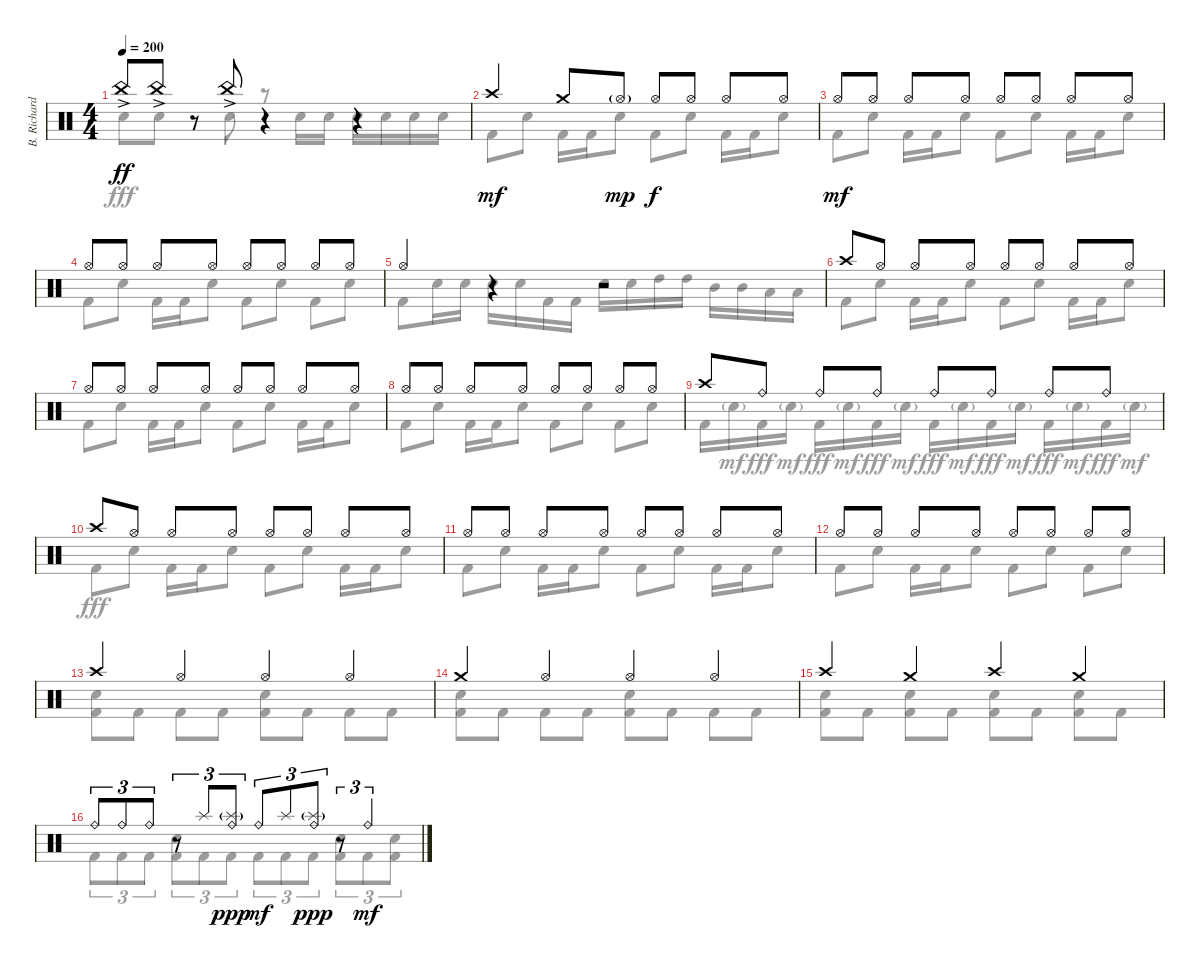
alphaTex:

\track ("B. Richardson Drums" "B. Richard") {instrument percussion}
\staff {score}
\articulation defaults
\voice
\ts (4 4)
\tempo 200
\clef neutral
\ks c "China (hit)"{ac}.8{dy ff} "China (hit)"{ac}.8
r.8 "China (hit)"{ac}.8 r.4 r.4 |
"Crash high (hit)".4{dy mf} "Crash medium (hit)".8 "Hi-Hat (open)"{g}.8{dy mp} "Hi-Hat (open)".8{dy f} "Hi-Hat (open)".8 "Hi-Hat (open)".8 "Hi-Hat (open)".8 |
"Hi-Hat (open)".8{dy mf} "Hi-Hat (open)".8 "Hi-Hat (open)".8 "Hi-Hat (open)".8 "Hi-Hat (open)".8 "Hi-Hat (open)".8 "Hi-Hat (open)".8 "Hi-Hat (open)".8 |
"Hi-Hat (open)".8 "Hi-Hat (open)".8 "Hi-Hat (open)".8 "Hi-Hat (open)".8 "Hi-Hat (open)".8 "Hi-Hat (open)".8 "Hi-Hat (open)".8 "Hi-Hat (open)".8 |
"Hi-Hat (open)".4 r.4 r.2 |
"Crash high (hit)".8 "Hi-Hat (open)".8 "Hi-Hat (open)".8 "Hi-Hat (open)".8 "Hi-Hat (open)".8 "Hi-Hat (open)".8 "Hi-Hat (open)".8 "Hi-Hat (open)".8 |
"Hi-Hat (open)".8 "Hi-Hat (open)".8 "Hi-Hat (open)".8 "Hi-Hat (open)".8 "Hi-Hat (open)".8 "Hi-Hat (open)".8 "Hi-Hat (open)".8 "Hi-Hat (open)".8 |
"Hi-Hat (open)".8 "Hi-Hat (open)".8 "Hi-Hat (open)".8 "Hi-Hat (open)".8 "Hi-Hat (open)".8 "Hi-Hat (open)".8 "Hi-Hat (open)".8 "Hi-Hat (open)".8 |
"Crash high (hit)".8 "Ride (bell)".8 "Ride (bell)".8 "Ride (bell)".8 "Ride (bell)".8 "Ride (bell)".8 "Ride (bell)".8 "Ride (bell)".8 |
"Crash high (hit)".8 "Hi-Hat (open)".8 "Hi-Hat (open)".8 "Hi-Hat (open)".8 "Hi-Hat (open)".8 "Hi-Hat (open)".8 "Hi-Hat (open)".8 "Hi-Hat (open)".8 |
"Hi-Hat (open)".8 "Hi-Hat (open)".8 "Hi-Hat (open)".8 "Hi-Hat (open)".8 "Hi-Hat (open)".8 "Hi-Hat (open)".8 "Hi-Hat (open)".8 "Hi-Hat (open)".8 |
"Hi-Hat (open)".8 "Hi-Hat (open)".8 "Hi-Hat (open)".8 "Hi-Hat (open)".8 "Hi-Hat (open)".8 "Hi-Hat (open)".8 "Hi-Hat (open)".8 "Hi-Hat (open)".8 |
"Crash high (hit)".4 "Hi-Hat (open)".4 "Hi-Hat (open)".4 "Hi-Hat (open)".4 |
"Crash medium (hit)".4 "Hi-Hat (open)".4 "Hi-Hat (open)".4 "Hi-Hat (open)".4 |
"Crash high (hit)".4 "Crash medium (hit)".4 "Crash high (hit)".4 "Crash medium (hit)".4 |
"Ride (bell)".8{tu (3 2)} "Ride (bell)".8{tu (3 2)} "Ride (bell)".8{tu (3 2)} r.8{tu (3 2)} "Splash (hit)".8{tu (3 2)} ("Ride (bell)" "Splash (hit)"{g}).8{tu (3 2) dy ppp} "Ride (bell)".8{tu (3 2) dy mf} "Splash (hit)".8{tu (3 2)} ("Ride (bell)" "Splash (hit)"{g}).8{tu (3 2) dy ppp} r.8{tu (3 2)} "Ride (bell)".4{tu (3 2) dy mf}
\voice
\clef neutral
\ottava regular
\simile none
\ks c "Electric Snare (hit)".8{dy fff} "Electric Snare (hit)".8
r.8 "Electric Snare (hit)".8 r.8 "Electric Snare (hit)".16 "Electric Snare (hit)".16 "Electric Snare (hit)".16 "Electric Snare (hit)".16 "Electric Snare (hit)".16 "Electric Snare (hit)".16 |
"Kick (hit) 2".8 "Electric Snare (hit)".8 "Kick (hit) 2".16 "Kick (hit) 2".16 "Electric Snare (hit)".8 "Kick (hit) 2".8 "Electric Snare (hit)".8 "Kick (hit) 2".16 "Kick (hit) 2".16 "Electric Snare (hit)".8 |
"Kick (hit) 2".8 "Electric Snare (hit)".8 "Kick (hit) 2".16 "Kick (hit) 2".16 "Electric Snare (hit)".8 "Kick (hit) 2".8 "Electric Snare (hit)".8 "Kick (hit) 2".16 "Kick (hit) 2".16 "Electric Snare (hit)".8 |
"Kick (hit) 2".8 "Electric Snare (hit)".8 "Kick (hit) 2".16 "Kick (hit) 2".16 "Electric Snare (hit)".8 "Kick (hit) 2".8 "Electric Snare (hit)".8 "Kick (hit) 2".8 "Electric Snare (hit)".8 |
"Kick (hit) 2".8 "Electric Snare (hit)".16 "Electric Snare (hit)".16 "Electric Snare (hit)".16 "Electric Snare (hit)".16 "Kick (hit) 2".16 "Kick (hit) 2".16 "Electric Snare (hit)".16 "Electric Snare (hit)".16 "High Tom (hit)".16 "High Tom (hit)".16 "Mid Tom (hit)".16 "Mid Tom (hit)".16 "Low Tom (hit)".16 "Low Tom (hit)".16 |
"Kick (hit) 2".8 "Electric Snare (hit)".8 "Kick (hit) 2".16 "Kick (hit) 2".16 "Electric Snare (hit)".8 "Kick (hit) 2".8 "Electric Snare (hit)".8 "Kick (hit) 2".16 "Kick (hit) 2".16 "Electric Snare (hit)".8 |
"Kick (hit) 2".8 "Electric Snare (hit)".8 "Kick (hit) 2".16 "Kick (hit) 2".16 "Electric Snare (hit)".8 "Kick (hit) 2".8 "Electric Snare (hit)".8 "Kick (hit) 2".16 "Kick (hit) 2".16 "Electric Snare (hit)".8 |
"Kick (hit) 2".8 "Electric Snare (hit)".8 "Kick (hit) 2".16 "Kick (hit) 2".16 "Electric Snare (hit)".8 "Kick (hit) 2".8 "Electric Snare (hit)".8 "Kick (hit) 2".8 "Electric Snare (hit)".8 |
"Kick (hit) 2".16 "Electric Snare (hit)"{g}.16{dy mf} "Kick (hit) 2".16{dy fff} "Electric Snare (hit)"{g}.16{dy mf} "Kick (hit) 2".16{dy fff} "Electric Snare (hit)"{g}.16{dy mf} "Kick (hit) 2".16{dy fff} "Electric Snare (hit)"{g}.16{dy mf} "Kick (hit) 2".16{dy fff} "Electric Snare (hit)"{g}.16{dy mf} "Kick (hit) 2".16{dy fff} "Electric Snare (hit)"{g}.16{dy mf} "Kick (hit) 2".16{dy fff} "Electric Snare (hit)"{g}.16{dy mf} "Kick (hit) 2".16{dy fff} "Electric Snare (hit)"{g}.16{dy mf} |
"Kick (hit) 2".8{dy fff} "Electric Snare (hit)".8 "Kick (hit) 2".16 "Kick (hit) 2".16 "Electric Snare (hit)".8 "Kick (hit) 2".8 "Electric Snare (hit)".8 "Kick (hit) 2".16 "Kick (hit) 2".16 "Electric Snare (hit)".8 |
"Kick (hit) 2".8 "Electric Snare (hit)".8 "Kick (hit) 2".16 "Kick (hit) 2".16 "Electric Snare (hit)".8 "Kick (hit) 2".8 "Electric Snare (hit)".8 "Kick (hit) 2".16 "Kick (hit) 2".16 "Electric Snare (hit)".8 |
"Kick (hit) 2".8 "Electric Snare (hit)".8 "Kick (hit) 2".16 "Kick (hit) 2".16 "Electric Snare (hit)".8 "Kick (hit) 2".8 "Electric Snare (hit)".8 "Kick (hit) 2".8 "Electric Snare (hit)".8 |
("Electric Snare (hit)" "Kick (hit) 2").8 "Kick (hit) 2".8 "Kick (hit) 2".8 "Kick (hit) 2".8 ("Electric Snare (hit)" "Kick (hit) 2").8 "Kick (hit) 2".8 "Kick (hit) 2".8 "Kick (hit) 2".8 |
("Electric Snare (hit)" "Kick (hit) 2").8 "Kick (hit) 2".8 "Kick (hit) 2".8 "Kick (hit) 2".8 ("Electric Snare (hit)" "Kick (hit) 2").8 "Kick (hit) 2".8 "Kick (hit) 2".8 "Kick (hit) 2".8 |
("Electric Snare (hit)" "Kick (hit) 2").8 "Kick (hit) 2".8 ("Electric Snare (hit)" "Kick (hit) 2").8 "Kick (hit) 2".8 ("Electric Snare (hit)" "Kick (hit) 2").8 "Kick (hit) 2".8 ("Electric Snare (hit)" "Kick (hit) 2").8 "Kick (hit) 2".8 |
"Kick (hit) 2".8{tu (3 2)} "Kick (hit) 2".8{tu (3 2)} "Kick (hit) 2".8{tu (3 2)} ("Electric Snare (hit)" "Kick (hit) 2").8{tu (3 2)} "Kick (hit) 2".8{tu (3 2)} "Kick (hit) 2".8{tu (3 2)} "Kick (hit) 2".8{tu (3 2)} "Kick (hit) 2".8{tu (3 2)} "Kick (hit) 2".8{tu (3 2)} ("Electric Snare (hit)" "Kick (hit) 2").8{tu (3 2)} "Kick (hit) 2".8{tu (3 2)} ("Electric Snare (hit)" "Kick (hit) 2").8{tu (3 2)}
